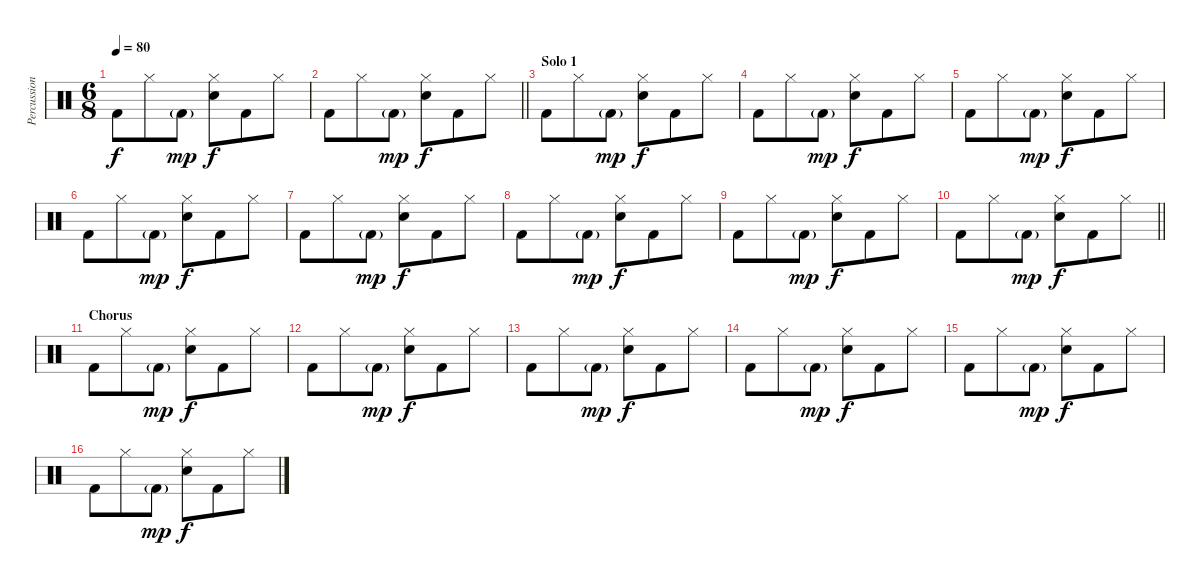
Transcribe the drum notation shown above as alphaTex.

\track ("Percussion" "Percussion") {instrument percussion}
\staff {score}
\articulation defaults
\ts (6 8)
\tempo 80
\clef neutral
\ks c "Kick (hit) 2".8{dy f} "Hi-Hat (closed)".8 "Kick (hit) 2"{g}.8{dy mp}
("Hi-Hat (closed)" "Snare (hit) 2").8{dy f} "Kick (hit) 2".8 "Hi-Hat (closed)".8 |
\barLineRight lightlight "Kick (hit) 2".8 "Hi-Hat (closed)".8 "Kick (hit) 2"{g}.8{dy mp}
("Hi-Hat (closed)" "Snare (hit) 2").8{dy f} "Kick (hit) 2".8 "Hi-Hat (closed)".8 |
\section ("" "Solo 1")
"Kick (hit) 2".8 "Hi-Hat (closed)".8 "Kick (hit) 2"{g}.8{dy mp} ("Hi-Hat (closed)" "Snare (hit) 2").8{dy f} "Kick (hit) 2".8 "Hi-Hat (closed)".8 |
"Kick (hit) 2".8 "Hi-Hat (closed)".8 "Kick (hit) 2"{g}.8{dy mp} ("Hi-Hat (closed)" "Snare (hit) 2").8{dy f} "Kick (hit) 2".8 "Hi-Hat (closed)".8 |
"Kick (hit) 2".8 "Hi-Hat (closed)".8 "Kick (hit) 2"{g}.8{dy mp} ("Hi-Hat (closed)" "Snare (hit) 2").8{dy f} "Kick (hit) 2".8 "Hi-Hat (closed)".8 |
"Kick (hit) 2".8 "Hi-Hat (closed)".8 "Kick (hit) 2"{g}.8{dy mp} ("Hi-Hat (closed)" "Snare (hit) 2").8{dy f} "Kick (hit) 2".8 "Hi-Hat (closed)".8 |
"Kick (hit) 2".8 "Hi-Hat (closed)".8 "Kick (hit) 2"{g}.8{dy mp} ("Hi-Hat (closed)" "Snare (hit) 2").8{dy f} "Kick (hit) 2".8 "Hi-Hat (closed)".8 |
"Kick (hit) 2".8 "Hi-Hat (closed)".8 "Kick (hit) 2"{g}.8{dy mp} ("Hi-Hat (closed)" "Snare (hit) 2").8{dy f} "Kick (hit) 2".8 "Hi-Hat (closed)".8 |
"Kick (hit) 2".8 "Hi-Hat (closed)".8 "Kick (hit) 2"{g}.8{dy mp} ("Hi-Hat (closed)" "Snare (hit) 2").8{dy f} "Kick (hit) 2".8 "Hi-Hat (closed)".8 |
\barLineRight lightlight "Kick (hit) 2".8 "Hi-Hat (closed)".8 "Kick (hit) 2"{g}.8{dy mp}
("Hi-Hat (closed)" "Snare (hit) 2").8{dy f} "Kick (hit) 2".8 "Hi-Hat (closed)".8 |
\section ("" "Chorus")
"Kick (hit) 2".8 "Hi-Hat (closed)".8 "Kick (hit) 2"{g}.8{dy mp} ("Hi-Hat (closed)" "Snare (hit) 2").8{dy f} "Kick (hit) 2".8 "Hi-Hat (closed)".8 |
"Kick (hit) 2".8 "Hi-Hat (closed)".8 "Kick (hit) 2"{g}.8{dy mp} ("Hi-Hat (closed)" "Snare (hit) 2").8{dy f} "Kick (hit) 2".8 "Hi-Hat (closed)".8 |
"Kick (hit) 2".8 "Hi-Hat (closed)".8 "Kick (hit) 2"{g}.8{dy mp} ("Hi-Hat (closed)" "Snare (hit) 2").8{dy f} "Kick (hit) 2".8 "Hi-Hat (closed)".8 |
"Kick (hit) 2".8 "Hi-Hat (closed)".8 "Kick (hit) 2"{g}.8{dy mp} ("Hi-Hat (closed)" "Snare (hit) 2").8{dy f} "Kick (hit) 2".8 "Hi-Hat (closed)".8 |
"Kick (hit) 2".8 "Hi-Hat (closed)".8 "Kick (hit) 2"{g}.8{dy mp} ("Hi-Hat (closed)" "Snare (hit) 2").8{dy f} "Kick (hit) 2".8 "Hi-Hat (closed)".8 |
"Kick (hit) 2".8 "Hi-Hat (closed)".8 "Kick (hit) 2"{g}.8{dy mp} ("Hi-Hat (closed)" "Snare (hit) 2").8{dy f} "Kick (hit) 2".8 "Hi-Hat (closed)".8
